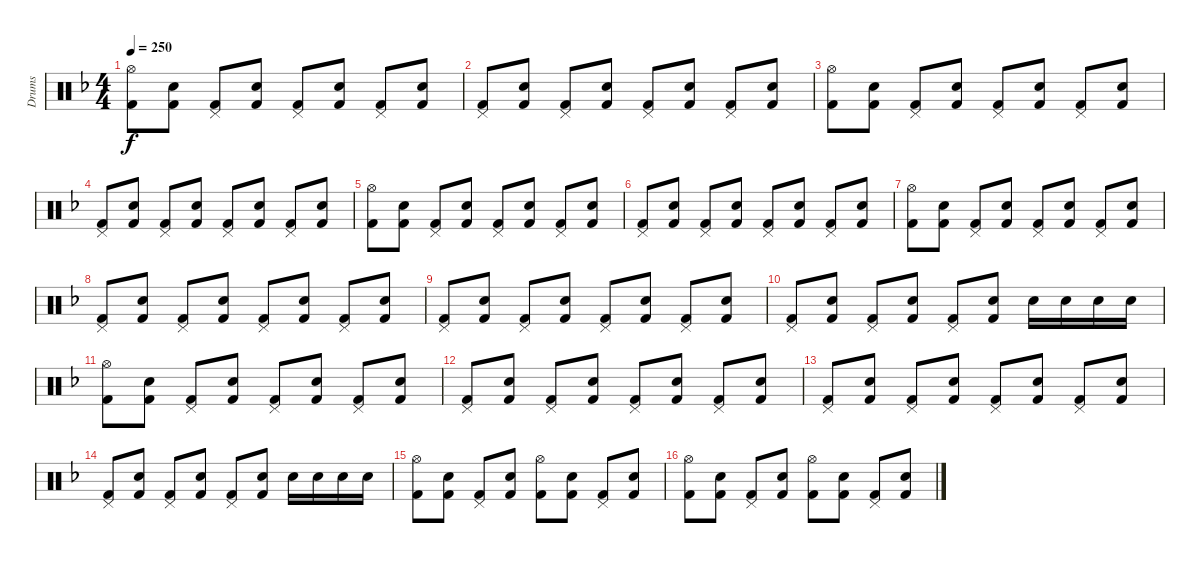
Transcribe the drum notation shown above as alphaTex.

\track ("Drums" "Drums") {instrument percussion}
\staff {score}
\articulation defaults
\ts (4 4)
\tempo 250
\clef neutral
\ks f
("Hi-Hat (open)" "Kick (hit) 2").8{dy f} ("Snare (hit) 2" "Kick (hit) 2").8 ("Pedal Hi-Hat (hit)" "Kick (hit) 2").8 ("Snare (hit) 2" "Kick (hit) 2").8 ("Pedal Hi-Hat (hit)" "Kick (hit) 2").8 ("Snare (hit) 2" "Kick (hit) 2").8 ("Pedal Hi-Hat (hit)" "Kick (hit) 2").8 ("Snare (hit) 2" "Kick (hit) 2").8 |
("Pedal Hi-Hat (hit)" "Kick (hit) 2").8 ("Snare (hit) 2" "Kick (hit) 2").8 ("Pedal Hi-Hat (hit)" "Kick (hit) 2").8 ("Snare (hit) 2" "Kick (hit) 2").8 ("Pedal Hi-Hat (hit)" "Kick (hit) 2").8 ("Snare (hit) 2" "Kick (hit) 2").8 ("Pedal Hi-Hat (hit)" "Kick (hit) 2").8 ("Snare (hit) 2" "Kick (hit) 2").8 |
("Hi-Hat (open)" "Kick (hit) 2").8 ("Snare (hit) 2" "Kick (hit) 2").8 ("Pedal Hi-Hat (hit)" "Kick (hit) 2").8 ("Snare (hit) 2" "Kick (hit) 2").8 ("Pedal Hi-Hat (hit)" "Kick (hit) 2").8 ("Snare (hit) 2" "Kick (hit) 2").8 ("Pedal Hi-Hat (hit)" "Kick (hit) 2").8 ("Snare (hit) 2" "Kick (hit) 2").8 |
("Pedal Hi-Hat (hit)" "Kick (hit) 2").8 ("Snare (hit) 2" "Kick (hit) 2").8 ("Pedal Hi-Hat (hit)" "Kick (hit) 2").8 ("Snare (hit) 2" "Kick (hit) 2").8 ("Pedal Hi-Hat (hit)" "Kick (hit) 2").8 ("Snare (hit) 2" "Kick (hit) 2").8 ("Pedal Hi-Hat (hit)" "Kick (hit) 2").8 ("Snare (hit) 2" "Kick (hit) 2").8 |
("Hi-Hat (open)" "Kick (hit) 2").8 ("Snare (hit) 2" "Kick (hit) 2").8 ("Pedal Hi-Hat (hit)" "Kick (hit) 2").8 ("Snare (hit) 2" "Kick (hit) 2").8 ("Pedal Hi-Hat (hit)" "Kick (hit) 2").8 ("Snare (hit) 2" "Kick (hit) 2").8 ("Pedal Hi-Hat (hit)" "Kick (hit) 2").8 ("Snare (hit) 2" "Kick (hit) 2").8 |
("Pedal Hi-Hat (hit)" "Kick (hit) 2").8 ("Snare (hit) 2" "Kick (hit) 2").8 ("Pedal Hi-Hat (hit)" "Kick (hit) 2").8 ("Snare (hit) 2" "Kick (hit) 2").8 ("Pedal Hi-Hat (hit)" "Kick (hit) 2").8 ("Snare (hit) 2" "Kick (hit) 2").8 ("Pedal Hi-Hat (hit)" "Kick (hit) 2").8 ("Snare (hit) 2" "Kick (hit) 2").8 |
("Hi-Hat (open)" "Kick (hit) 2").8 ("Snare (hit) 2" "Kick (hit) 2").8 ("Pedal Hi-Hat (hit)" "Kick (hit) 2").8 ("Snare (hit) 2" "Kick (hit) 2").8 ("Pedal Hi-Hat (hit)" "Kick (hit) 2").8 ("Snare (hit) 2" "Kick (hit) 2").8 ("Pedal Hi-Hat (hit)" "Kick (hit) 2").8 ("Snare (hit) 2" "Kick (hit) 2").8 |
("Pedal Hi-Hat (hit)" "Kick (hit) 2").8 ("Snare (hit) 2" "Kick (hit) 2").8 ("Pedal Hi-Hat (hit)" "Kick (hit) 2").8 ("Snare (hit) 2" "Kick (hit) 2").8 ("Pedal Hi-Hat (hit)" "Kick (hit) 2").8 ("Snare (hit) 2" "Kick (hit) 2").8 ("Pedal Hi-Hat (hit)" "Kick (hit) 2").8 ("Snare (hit) 2" "Kick (hit) 2").8 |
("Pedal Hi-Hat (hit)" "Kick (hit) 2").8 ("Snare (hit) 2" "Kick (hit) 2").8 ("Pedal Hi-Hat (hit)" "Kick (hit) 2").8 ("Snare (hit) 2" "Kick (hit) 2").8 ("Pedal Hi-Hat (hit)" "Kick (hit) 2").8 ("Snare (hit) 2" "Kick (hit) 2").8 ("Pedal Hi-Hat (hit)" "Kick (hit) 2").8 ("Snare (hit) 2" "Kick (hit) 2").8 |
("Pedal Hi-Hat (hit)" "Kick (hit) 2").8 ("Snare (hit) 2" "Kick (hit) 2").8 ("Pedal Hi-Hat (hit)" "Kick (hit) 2").8 ("Snare (hit) 2" "Kick (hit) 2").8 ("Pedal Hi-Hat (hit)" "Kick (hit) 2").8 ("Snare (hit) 2" "Kick (hit) 2").8 "Snare (hit) 2".16 "Snare (hit) 2".16 "Snare (hit) 2".16 "Snare (hit) 2".16 |
("Hi-Hat (open)" "Kick (hit) 2").8 ("Snare (hit) 2" "Kick (hit) 2").8 ("Pedal Hi-Hat (hit)" "Kick (hit) 2").8 ("Snare (hit) 2" "Kick (hit) 2").8 ("Pedal Hi-Hat (hit)" "Kick (hit) 2").8 ("Snare (hit) 2" "Kick (hit) 2").8 ("Pedal Hi-Hat (hit)" "Kick (hit) 2").8 ("Snare (hit) 2" "Kick (hit) 2").8 |
("Pedal Hi-Hat (hit)" "Kick (hit) 2").8 ("Snare (hit) 2" "Kick (hit) 2").8 ("Pedal Hi-Hat (hit)" "Kick (hit) 2").8 ("Snare (hit) 2" "Kick (hit) 2").8 ("Pedal Hi-Hat (hit)" "Kick (hit) 2").8 ("Snare (hit) 2" "Kick (hit) 2").8 ("Pedal Hi-Hat (hit)" "Kick (hit) 2").8 ("Snare (hit) 2" "Kick (hit) 2").8 |
("Pedal Hi-Hat (hit)" "Kick (hit) 2").8 ("Snare (hit) 2" "Kick (hit) 2").8 ("Pedal Hi-Hat (hit)" "Kick (hit) 2").8 ("Snare (hit) 2" "Kick (hit) 2").8 ("Pedal Hi-Hat (hit)" "Kick (hit) 2").8 ("Snare (hit) 2" "Kick (hit) 2").8 ("Pedal Hi-Hat (hit)" "Kick (hit) 2").8 ("Snare (hit) 2" "Kick (hit) 2").8 |
("Pedal Hi-Hat (hit)" "Kick (hit) 2").8 ("Snare (hit) 2" "Kick (hit) 2").8 ("Pedal Hi-Hat (hit)" "Kick (hit) 2").8 ("Snare (hit) 2" "Kick (hit) 2").8 ("Pedal Hi-Hat (hit)" "Kick (hit) 2").8 ("Snare (hit) 2" "Kick (hit) 2").8 "Snare (hit) 2".16 "Snare (hit) 2".16 "Snare (hit) 2".16 "Snare (hit) 2".16 |
("Hi-Hat (open)" "Kick (hit) 2").8 ("Snare (hit) 2" "Kick (hit) 2").8 ("Pedal Hi-Hat (hit)" "Kick (hit) 2").8 ("Snare (hit) 2" "Kick (hit) 2").8 ("Hi-Hat (open)" "Kick (hit) 2").8 ("Snare (hit) 2" "Kick (hit) 2").8 ("Pedal Hi-Hat (hit)" "Kick (hit) 2").8 ("Snare (hit) 2" "Kick (hit) 2").8 |
("Hi-Hat (open)" "Kick (hit) 2").8 ("Snare (hit) 2" "Kick (hit) 2").8 ("Pedal Hi-Hat (hit)" "Kick (hit) 2").8 ("Snare (hit) 2" "Kick (hit) 2").8 ("Hi-Hat (open)" "Kick (hit) 2").8 ("Snare (hit) 2" "Kick (hit) 2").8 ("Pedal Hi-Hat (hit)" "Kick (hit) 2").8 ("Snare (hit) 2" "Kick (hit) 2").8
